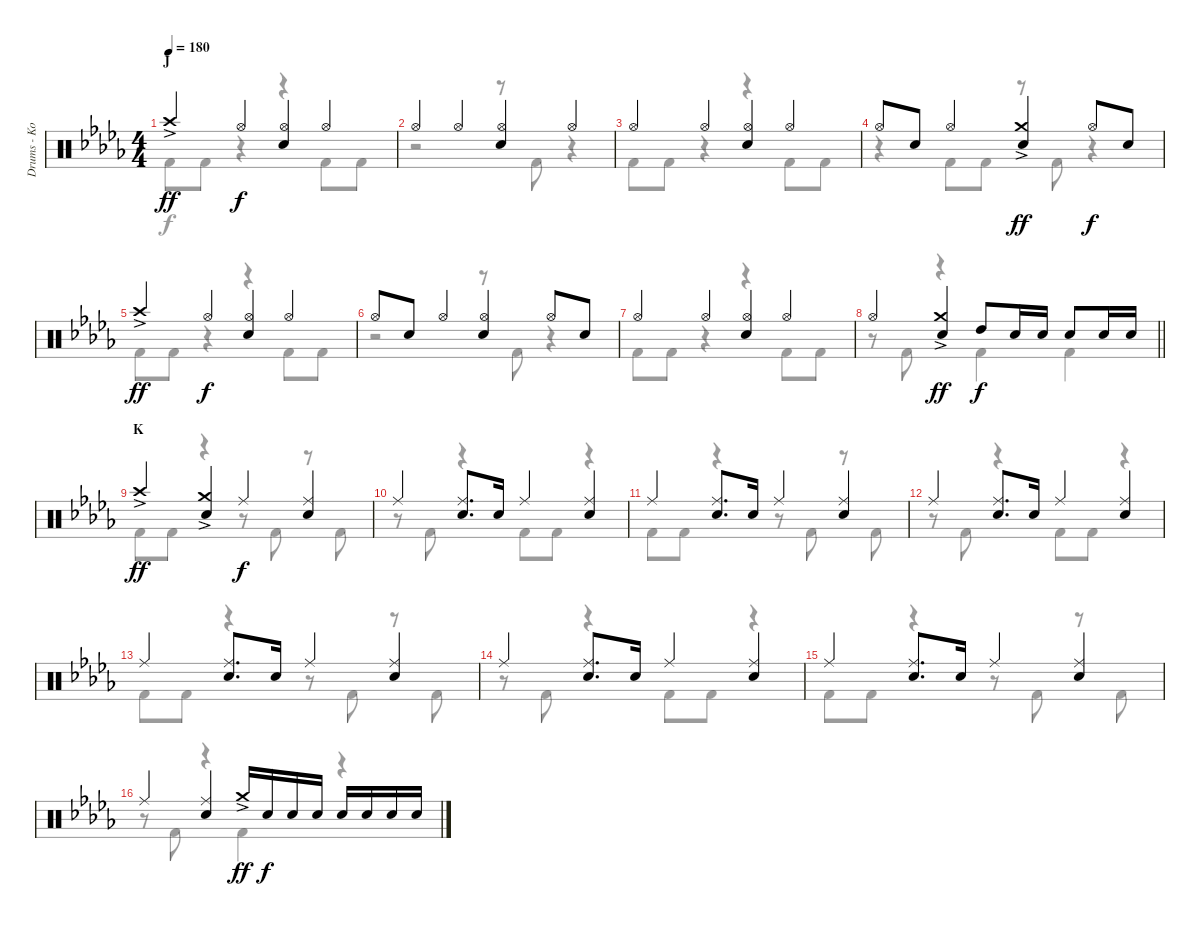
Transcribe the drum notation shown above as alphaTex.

\track ("Drums - Koji Hasegawa" "Drums - Ko") {instrument percussion}
\staff {score}
\articulation defaults
\voice
\ts (4 4)
\section ("" "J")
\tempo 180
\clef neutral
\ks db "Crash high (hit)"{ac}.4{dy ff} "Hi-Hat (open)".4{dy f}
("Hi-Hat (open)" "Snare (hit) 2").4 "Hi-Hat (open)".4 |
"Hi-Hat (open)".4 "Hi-Hat (open)".4 ("Hi-Hat (open)" "Snare (hit) 2").4 "Hi-Hat (open)".4 |
"Hi-Hat (open)".4 "Hi-Hat (open)".4 ("Hi-Hat (open)" "Snare (hit) 2").4 "Hi-Hat (open)".4 |
"Hi-Hat (open)".8 "Snare (hit) 2".8 "Hi-Hat (open)".4 ("Crash medium (hit)"{ac} "Snare (hit) 2").4{dy ff} "Hi-Hat (open)".8{dy f} "Snare (hit) 2".8 |
"Crash high (hit)"{ac}.4{dy ff} "Hi-Hat (open)".4{dy f} ("Hi-Hat (open)" "Snare (hit) 2").4 "Hi-Hat (open)".4 |
"Hi-Hat (open)".8 "Snare (hit) 2".8 "Hi-Hat (open)".4 ("Hi-Hat (open)" "Snare (hit) 2").4 "Hi-Hat (open)".8 "Snare (hit) 2".8 |
"Hi-Hat (open)".4 "Hi-Hat (open)".4 ("Hi-Hat (open)" "Snare (hit) 2").4 "Hi-Hat (open)".4 |
\barLineRight lightlight "Hi-Hat (open)".4
("Crash medium (hit)"{ac} "Snare (hit) 2").4{dy ff} "High Tom (hit)".8{dy f} "Snare (hit) 2".16 "Snare (hit) 2".16 "Snare (hit) 2".8 "Snare (hit) 2".16 "Snare (hit) 2".16 |
\section ("" "K")
"Crash high (hit)"{ac}.4{dy ff} ("Crash medium (hit)"{ac} "Snare (hit) 2").4 "Ride (middle)".4{dy f} ("Ride (middle)" "Snare (hit) 2").4 |
"Ride (middle)".4 ("Ride (middle)" "Snare (hit) 2").8{d} "Snare (hit) 2".16 "Ride (middle)".4 ("Ride (middle)" "Snare (hit) 2").4 |
"Ride (middle)".4 ("Ride (middle)" "Snare (hit) 2").8{d} "Snare (hit) 2".16 "Ride (middle)".4 ("Ride (middle)" "Snare (hit) 2").4 |
"Ride (middle)".4 ("Ride (middle)" "Snare (hit) 2").8{d} "Snare (hit) 2".16 "Ride (middle)".4 ("Ride (middle)" "Snare (hit) 2").4 |
"Ride (middle)".4 ("Ride (middle)" "Snare (hit) 2").8{d} "Snare (hit) 2".16 "Ride (middle)".4 ("Ride (middle)" "Snare (hit) 2").4 |
"Ride (middle)".4 ("Ride (middle)" "Snare (hit) 2").8{d} "Snare (hit) 2".16 "Ride (middle)".4 ("Ride (middle)" "Snare (hit) 2").4 |
"Ride (middle)".4 ("Ride (middle)" "Snare (hit) 2").8{d} "Snare (hit) 2".16 "Ride (middle)".4 ("Ride (middle)" "Snare (hit) 2").4 |
"Ride (middle)".4 ("Ride (middle)" "Snare (hit) 2").4 "Crash medium (hit)"{ac}.16{dy ff} "Snare (hit) 2".16{dy f} "Snare (hit) 2".16 "Snare (hit) 2".16 "Snare (hit) 2".16 "Snare (hit) 2".16 "Snare (hit) 2".16 "Snare (hit) 2".16
\voice
\clef neutral
\ottava regular
\simile none
\ks db "Kick (hit) 2".8{dy f} "Kick (hit) 2".8
r.4 r.4 "Kick (hit) 2".8 "Kick (hit) 2".8 |
r.2 r.8 "Kick (hit) 2".8 r.4 |
"Kick (hit) 2".8 "Kick (hit) 2".8 r.4 r.4 "Kick (hit) 2".8 "Kick (hit) 2".8 |
r.4 "Kick (hit) 2".8 "Kick (hit) 2".8 r.8 "Kick (hit) 2".8 r.4 |
"Kick (hit) 2".8 "Kick (hit) 2".8 r.4 r.4 "Kick (hit) 2".8 "Kick (hit) 2".8 |
r.2 r.8 "Kick (hit) 2".8 r.4 |
"Kick (hit) 2".8 "Kick (hit) 2".8 r.4 r.4 "Kick (hit) 2".8 "Kick (hit) 2".8 |
\barLineRight lightlight
r.8 "Kick (hit) 2".8 r.4 "Kick (hit) 2".4 "Kick (hit) 2".4 |
"Kick (hit) 2".8 "Kick (hit) 2".8 r.4 r.8 "Kick (hit) 2".8 r.8 "Kick (hit) 2".8 |
r.8 "Kick (hit) 2".8 r.4 "Kick (hit) 2".8 "Kick (hit) 2".8 r.4 |
"Kick (hit) 2".8 "Kick (hit) 2".8 r.4 r.8 "Kick (hit) 2".8 r.8 "Kick (hit) 2".8 |
r.8 "Kick (hit) 2".8 r.4 "Kick (hit) 2".8 "Kick (hit) 2".8 r.4 |
"Kick (hit) 2".8 "Kick (hit) 2".8 r.4 r.8 "Kick (hit) 2".8 r.8 "Kick (hit) 2".8 |
r.8 "Kick (hit) 2".8 r.4 "Kick (hit) 2".8 "Kick (hit) 2".8 r.4 |
"Kick (hit) 2".8 "Kick (hit) 2".8 r.4 r.8 "Kick (hit) 2".8 r.8 "Kick (hit) 2".8 |
r.8 "Kick (hit) 2".8 r.4 "Kick (hit) 2".4 r.4
